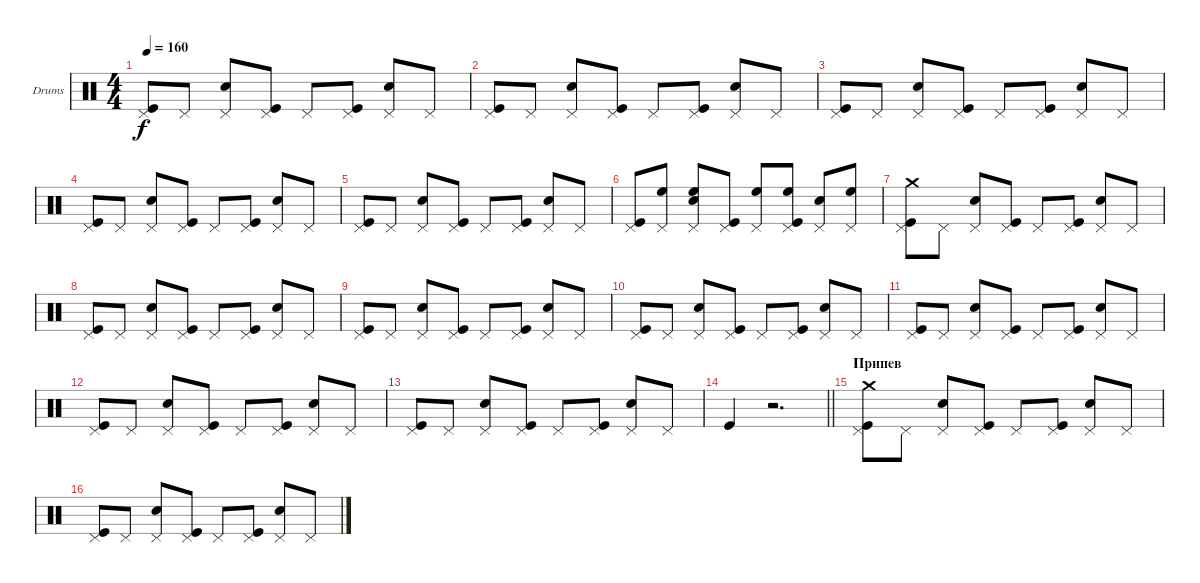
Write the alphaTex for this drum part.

\bracketExtendMode groupsimilarinstruments
\firstSystemTrackNameOrientation horizontal
\otherSystemsTrackNameOrientation horizontal
\track ("Ударные" "Drums") {instrument percussion}
\staff {score}
\articulation defaults
\ts (4 4)
\tempo 160
\clef neutral
\ks c
("Pedal Hi-Hat (hit)" "Kick (hit)").8{dy f} "Pedal Hi-Hat (hit)".8 ("Pedal Hi-Hat (hit)" "Snare (hit) 2").8 ("Pedal Hi-Hat (hit)" "Kick (hit)").8 "Pedal Hi-Hat (hit)".8 ("Pedal Hi-Hat (hit)" "Kick (hit)").8 ("Pedal Hi-Hat (hit)" "Snare (hit) 2").8 "Pedal Hi-Hat (hit)".8 |
("Pedal Hi-Hat (hit)" "Kick (hit)").8 "Pedal Hi-Hat (hit)".8 ("Pedal Hi-Hat (hit)" "Snare (hit) 2").8 ("Pedal Hi-Hat (hit)" "Kick (hit)").8 "Pedal Hi-Hat (hit)".8 ("Pedal Hi-Hat (hit)" "Kick (hit)").8 ("Pedal Hi-Hat (hit)" "Snare (hit) 2").8 "Pedal Hi-Hat (hit)".8 |
("Pedal Hi-Hat (hit)" "Kick (hit)").8 "Pedal Hi-Hat (hit)".8 ("Pedal Hi-Hat (hit)" "Snare (hit) 2").8 ("Pedal Hi-Hat (hit)" "Kick (hit)").8 "Pedal Hi-Hat (hit)".8 ("Pedal Hi-Hat (hit)" "Kick (hit)").8 ("Pedal Hi-Hat (hit)" "Snare (hit) 2").8 "Pedal Hi-Hat (hit)".8 |
("Pedal Hi-Hat (hit)" "Kick (hit)").8 "Pedal Hi-Hat (hit)".8 ("Pedal Hi-Hat (hit)" "Snare (hit) 2").8 ("Pedal Hi-Hat (hit)" "Kick (hit)").8 "Pedal Hi-Hat (hit)".8 ("Pedal Hi-Hat (hit)" "Kick (hit)").8 ("Pedal Hi-Hat (hit)" "Snare (hit) 2").8 "Pedal Hi-Hat (hit)".8 |
("Pedal Hi-Hat (hit)" "Kick (hit)").8 "Pedal Hi-Hat (hit)".8 ("Pedal Hi-Hat (hit)" "Snare (hit) 2").8 ("Pedal Hi-Hat (hit)" "Kick (hit)").8 "Pedal Hi-Hat (hit)".8 ("Pedal Hi-Hat (hit)" "Kick (hit)").8 ("Pedal Hi-Hat (hit)" "Snare (hit) 2").8 "Pedal Hi-Hat (hit)".8 |
("Pedal Hi-Hat (hit)" "Kick (hit)").8 ("Pedal Hi-Hat (hit)" "High Floor Tom (hit)").8 ("Pedal Hi-Hat (hit)" "High Floor Tom (hit)" "Snare (hit) 2").8 ("Pedal Hi-Hat (hit)" "Kick (hit)").8 ("Pedal Hi-Hat (hit)" "High Floor Tom (hit)").8 ("Pedal Hi-Hat (hit)" "High Floor Tom (hit)" "Kick (hit)").8 ("Pedal Hi-Hat (hit)" "Snare (hit) 2").8 ("Pedal Hi-Hat (hit)" "High Floor Tom (hit)").8 |
("Pedal Hi-Hat (hit)" "Crash medium (hit)" "Kick (hit)").8 "Pedal Hi-Hat (hit)".8 ("Pedal Hi-Hat (hit)" "Snare (hit) 2").8 ("Pedal Hi-Hat (hit)" "Kick (hit)").8 "Pedal Hi-Hat (hit)".8 ("Pedal Hi-Hat (hit)" "Kick (hit)").8 ("Pedal Hi-Hat (hit)" "Snare (hit) 2").8 "Pedal Hi-Hat (hit)".8 |
("Pedal Hi-Hat (hit)" "Kick (hit)").8 "Pedal Hi-Hat (hit)".8 ("Pedal Hi-Hat (hit)" "Snare (hit) 2").8 ("Pedal Hi-Hat (hit)" "Kick (hit)").8 "Pedal Hi-Hat (hit)".8 ("Pedal Hi-Hat (hit)" "Kick (hit)").8 ("Pedal Hi-Hat (hit)" "Snare (hit) 2").8 "Pedal Hi-Hat (hit)".8 |
("Pedal Hi-Hat (hit)" "Kick (hit)").8 "Pedal Hi-Hat (hit)".8 ("Pedal Hi-Hat (hit)" "Snare (hit) 2").8 ("Pedal Hi-Hat (hit)" "Kick (hit)").8 "Pedal Hi-Hat (hit)".8 ("Pedal Hi-Hat (hit)" "Kick (hit)").8 ("Pedal Hi-Hat (hit)" "Snare (hit) 2").8 "Pedal Hi-Hat (hit)".8 |
("Pedal Hi-Hat (hit)" "Kick (hit)").8 "Pedal Hi-Hat (hit)".8 ("Pedal Hi-Hat (hit)" "Snare (hit) 2").8 ("Pedal Hi-Hat (hit)" "Kick (hit)").8 "Pedal Hi-Hat (hit)".8 ("Pedal Hi-Hat (hit)" "Kick (hit)").8 ("Pedal Hi-Hat (hit)" "Snare (hit) 2").8 "Pedal Hi-Hat (hit)".8 |
("Pedal Hi-Hat (hit)" "Kick (hit)").8 "Pedal Hi-Hat (hit)".8 ("Pedal Hi-Hat (hit)" "Snare (hit) 2").8 ("Pedal Hi-Hat (hit)" "Kick (hit)").8 "Pedal Hi-Hat (hit)".8 ("Pedal Hi-Hat (hit)" "Kick (hit)").8 ("Pedal Hi-Hat (hit)" "Snare (hit) 2").8 "Pedal Hi-Hat (hit)".8 |
("Pedal Hi-Hat (hit)" "Kick (hit)").8 "Pedal Hi-Hat (hit)".8 ("Pedal Hi-Hat (hit)" "Snare (hit) 2").8 ("Pedal Hi-Hat (hit)" "Kick (hit)").8 "Pedal Hi-Hat (hit)".8 ("Pedal Hi-Hat (hit)" "Kick (hit)").8 ("Pedal Hi-Hat (hit)" "Snare (hit) 2").8 "Pedal Hi-Hat (hit)".8 |
("Pedal Hi-Hat (hit)" "Kick (hit)").8 "Pedal Hi-Hat (hit)".8 ("Pedal Hi-Hat (hit)" "Snare (hit) 2").8 ("Pedal Hi-Hat (hit)" "Kick (hit)").8 "Pedal Hi-Hat (hit)".8 ("Pedal Hi-Hat (hit)" "Kick (hit)").8 ("Pedal Hi-Hat (hit)" "Snare (hit) 2").8 "Pedal Hi-Hat (hit)".8 |
\barLineRight lightlight "Kick (hit)".4
r.2{d} |
\section ("" "Припев")
("Pedal Hi-Hat (hit)" "Crash medium (hit)" "Kick (hit)").8 "Pedal Hi-Hat (hit)".8 ("Pedal Hi-Hat (hit)" "Snare (hit) 2").8 ("Pedal Hi-Hat (hit)" "Kick (hit)").8 "Pedal Hi-Hat (hit)".8 ("Pedal Hi-Hat (hit)" "Kick (hit)").8 ("Pedal Hi-Hat (hit)" "Snare (hit) 2").8 "Pedal Hi-Hat (hit)".8 |
("Pedal Hi-Hat (hit)" "Kick (hit)").8 "Pedal Hi-Hat (hit)".8 ("Pedal Hi-Hat (hit)" "Snare (hit) 2").8 ("Pedal Hi-Hat (hit)" "Kick (hit)").8 "Pedal Hi-Hat (hit)".8 ("Pedal Hi-Hat (hit)" "Kick (hit)").8 ("Pedal Hi-Hat (hit)" "Snare (hit) 2").8 "Pedal Hi-Hat (hit)".8
